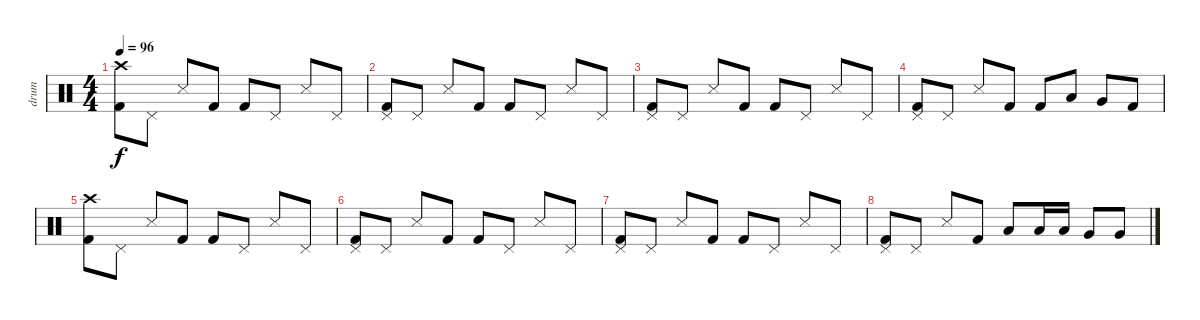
\track ("drum" "drum") {instrument percussion}
\staff {score}
\articulation defaults
\ts (4 4)
\tempo 96
\clef neutral
\ks c
("Crash high (hit)" "Kick (hit) 2").8{dy f} "Pedal Hi-Hat (hit)".8 "Snare (side stick) 3".8 "Kick (hit) 2".8 "Kick (hit) 2".8 "Pedal Hi-Hat (hit)".8 "Snare (side stick) 3".8 "Pedal Hi-Hat (hit)".8 |
("Pedal Hi-Hat (hit)" "Kick (hit) 2").8 "Pedal Hi-Hat (hit)".8 "Snare (side stick) 3".8 "Kick (hit) 2".8 "Kick (hit) 2".8 "Pedal Hi-Hat (hit)".8 "Snare (side stick) 3".8 "Pedal Hi-Hat (hit)".8 |
("Pedal Hi-Hat (hit)" "Kick (hit) 2").8 "Pedal Hi-Hat (hit)".8 "Snare (side stick) 3".8 "Kick (hit) 2".8 "Kick (hit) 2".8 "Pedal Hi-Hat (hit)".8 "Snare (side stick) 3".8 "Pedal Hi-Hat (hit)".8 |
("Pedal Hi-Hat (hit)" "Kick (hit) 2").8 "Pedal Hi-Hat (hit)".8 "Snare (side stick) 3".8 "Kick (hit) 2".8 "Kick (hit) 2".8 "Low Tom (hit)".8 "Very Low Tom (hit)".8 "Kick (hit) 2".8 |
("Crash high (hit)" "Kick (hit) 2").8 "Pedal Hi-Hat (hit)".8 "Snare (side stick) 3".8 "Kick (hit) 2".8 "Kick (hit) 2".8 "Pedal Hi-Hat (hit)".8 "Snare (side stick) 3".8 "Pedal Hi-Hat (hit)".8 |
("Pedal Hi-Hat (hit)" "Kick (hit) 2").8 "Pedal Hi-Hat (hit)".8 "Snare (side stick) 3".8 "Kick (hit) 2".8 "Kick (hit) 2".8 "Pedal Hi-Hat (hit)".8 "Snare (side stick) 3".8 "Pedal Hi-Hat (hit)".8 |
("Pedal Hi-Hat (hit)" "Kick (hit) 2").8 "Pedal Hi-Hat (hit)".8 "Snare (side stick) 3".8 "Kick (hit) 2".8 "Kick (hit) 2".8 "Pedal Hi-Hat (hit)".8 "Snare (side stick) 3".8 "Pedal Hi-Hat (hit)".8 |
("Pedal Hi-Hat (hit)" "Kick (hit) 2").8 "Pedal Hi-Hat (hit)".8 "Snare (side stick) 3".8 "Kick (hit) 2".8 "Low Tom (hit)".8 "Low Tom (hit)".16 "Low Tom (hit)".16 "Very Low Tom (hit)".8 "Very Low Tom (hit)".8
